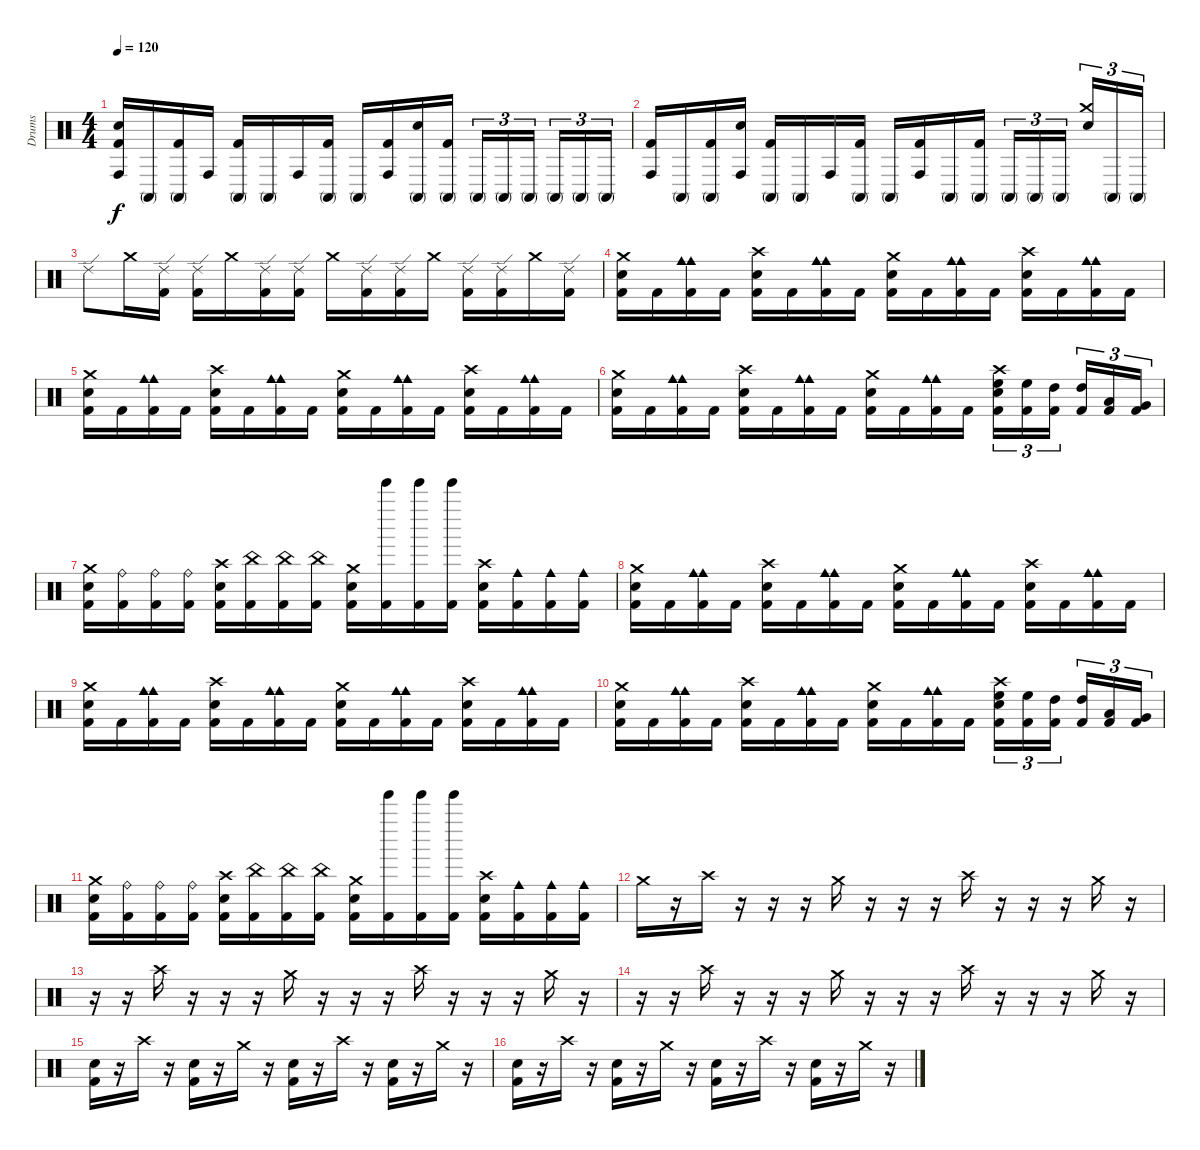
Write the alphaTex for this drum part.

\track ("Drums" "Drums") {instrument percussion}
\staff {score}
\articulation defaults
\ts (4 4)
\tempo 120
\clef neutral
\ks c
("Conga high (hit)" "Snare (hit) 2" "Kick (hit) 2").16{dy f} "Conga high (mute)".16 ("Conga high (mute)" "Kick (hit) 2").16 "Conga high (hit)".16 ("Conga high (mute)" "Kick (hit) 2").16 "Conga high (mute)".16 "Conga high (hit)".16 ("Conga high (mute)" "Kick (hit) 2").16 "Conga high (mute)".16 ("Conga high (hit)" "Kick (hit) 2").16 ("Conga high (mute)" "Snare (hit) 2").16 ("Conga high (mute)" "Kick (hit) 2").16 "Conga high (mute)".16{tu (3 2)} "Conga high (mute)".16{tu (3 2)} "Conga high (mute)".16{tu (3 2)} "Conga high (mute)".16{tu (3 2)} "Conga high (mute)".16{tu (3 2)} "Conga high (mute)".16{tu (3 2)} |
("Conga high (hit)" "Kick (hit) 2").16 "Conga high (mute)".16 ("Conga high (mute)" "Kick (hit) 2").16 ("Conga high (hit)" "Snare (hit) 2").16 ("Conga high (mute)" "Kick (hit) 2").16 "Conga high (mute)".16 "Conga high (hit)".16 ("Conga high (mute)" "Kick (hit) 2").16 "Conga high (mute)".16 ("Conga high (hit)" "Kick (hit) 2").16 "Conga high (mute)".16 ("Conga high (mute)" "Kick (hit) 2").16 "Conga high (mute)".16{tu (3 2)} "Conga high (mute)".16{tu (3 2)} "Conga high (mute)".16{tu (3 2)} ("Crash medium (hit)" "Snare (hit) 2").16{tu (3 2)} "Conga high (mute)".16{tu (3 2)} "Conga high (mute)".16{tu (3 2)} |
"Ride (edge) 2".8 "Crash medium (hit)".16 ("Ride (edge) 2" "Kick (hit) 2").16 ("Ride (edge) 2" "Kick (hit) 2").16 "Crash medium (hit)".16 ("Ride (edge) 2" "Kick (hit) 2").16 ("Ride (edge) 2" "Kick (hit) 2").16 "Crash medium (hit)".16 ("Ride (edge) 2" "Kick (hit) 2").16 ("Ride (edge) 2" "Kick (hit) 2").16 "Crash medium (hit)".16 ("Ride (edge) 2" "Kick (hit) 2").16 ("Ride (edge) 2" "Kick (hit) 2").16 "Crash medium (hit)".16 ("Ride (edge) 2" "Kick (hit) 2").16 |
("Crash medium (hit)" "Snare (hit) 2" "Kick (hit) 2").16 "Kick (hit) 2".16 ("Cowbell medium (hit)" "Cowbell medium (hit)" "Kick (hit) 2").16 "Kick (hit) 2".16 ("Crash high (hit)" "Snare (hit) 2" "Kick (hit) 2").16 "Kick (hit) 2".16 ("Cowbell medium (hit)" "Cowbell medium (hit)" "Kick (hit) 2").16 "Kick (hit) 2".16 ("Crash medium (hit)" "Snare (hit) 2" "Kick (hit) 2").16 "Kick (hit) 2".16 ("Cowbell medium (hit)" "Cowbell medium (hit)" "Kick (hit) 2").16 "Kick (hit) 2".16 ("Crash high (hit)" "Snare (hit) 2" "Kick (hit) 2").16 "Kick (hit) 2".16 ("Cowbell medium (hit)" "Cowbell medium (hit)" "Kick (hit) 2").16 "Kick (hit) 2".16 |
("Crash medium (hit)" "Snare (hit) 2" "Kick (hit) 2").16 "Kick (hit) 2".16 ("Cowbell medium (hit)" "Cowbell medium (hit)" "Kick (hit) 2").16 "Kick (hit) 2".16 ("Crash high (hit)" "Snare (hit) 2" "Kick (hit) 2").16 "Kick (hit) 2".16 ("Cowbell medium (hit)" "Cowbell medium (hit)" "Kick (hit) 2").16 "Kick (hit) 2".16 ("Crash medium (hit)" "Snare (hit) 2" "Kick (hit) 2").16 "Kick (hit) 2".16 ("Cowbell medium (hit)" "Cowbell medium (hit)" "Kick (hit) 2").16 "Kick (hit) 2".16 ("Crash high (hit)" "Snare (hit) 2" "Kick (hit) 2").16 "Kick (hit) 2".16 ("Cowbell medium (hit)" "Cowbell medium (hit)" "Kick (hit) 2").16 "Kick (hit) 2".16 |
("Crash medium (hit)" "Snare (hit) 2" "Kick (hit) 2").16 "Kick (hit) 2".16 ("Cowbell medium (hit)" "Cowbell medium (hit)" "Kick (hit) 2").16 "Kick (hit) 2".16 ("Crash high (hit)" "Snare (hit) 2" "Kick (hit) 2").16 "Kick (hit) 2".16 ("Cowbell medium (hit)" "Cowbell medium (hit)" "Kick (hit) 2").16 "Kick (hit) 2".16 ("Crash medium (hit)" "Snare (hit) 2" "Kick (hit) 2").16 "Kick (hit) 2".16 ("Cowbell medium (hit)" "Cowbell medium (hit)" "Kick (hit) 2").16 "Kick (hit) 2".16 ("Crash high (hit)" "High Floor Tom (hit)" "Snare (hit) 2" "Kick (hit) 2").16{tu (3 2)} ("High Floor Tom (hit)" "Kick (hit) 2").16{tu (3 2)} ("High Tom (hit)" "Kick (hit) 2").16{tu (3 2)} ("High Tom (hit)" "Kick (hit) 2").16{tu (3 2)} ("Low Tom (hit)" "Kick (hit) 2").16{tu (3 2)} ("Very Low Tom (hit)" "Kick (hit) 2").16{tu (3 2)} |
("Crash medium (hit)" "Snare (hit) 2" "Kick (hit) 2").16 ("Ride (bell)" "Kick (hit) 2").16 ("Ride (bell)" "Kick (hit) 2").16 ("Ride (bell)" "Kick (hit) 2").16 ("Crash high (hit)" "Snare (hit) 2" "Kick (hit) 2").16 ("China (hit)" "Kick (hit) 2").16 ("China (hit)" "Kick (hit) 2").16 ("China (hit)" "Kick (hit) 2").16 ("Crash medium (hit)" "Snare (hit) 2" "Kick (hit) 2").16 ("Tinkle Bell (hit)" "Kick (hit) 2").16 ("Tinkle Bell (hit)" "Kick (hit) 2").16 ("Tinkle Bell (hit)" "Kick (hit) 2").16 ("Crash high (hit)" "Snare (hit) 2" "Kick (hit) 2").16 ("Cowbell medium (hit)" "Kick (hit) 2").16 ("Cowbell medium (hit)" "Kick (hit) 2").16 ("Cowbell medium (hit)" "Kick (hit) 2").16 |
("Crash medium (hit)" "Snare (hit) 2" "Kick (hit) 2").16 "Kick (hit) 2".16 ("Cowbell medium (hit)" "Cowbell medium (hit)" "Kick (hit) 2").16 "Kick (hit) 2".16 ("Crash high (hit)" "Snare (hit) 2" "Kick (hit) 2").16 "Kick (hit) 2".16 ("Cowbell medium (hit)" "Cowbell medium (hit)" "Kick (hit) 2").16 "Kick (hit) 2".16 ("Crash medium (hit)" "Snare (hit) 2" "Kick (hit) 2").16 "Kick (hit) 2".16 ("Cowbell medium (hit)" "Cowbell medium (hit)" "Kick (hit) 2").16 "Kick (hit) 2".16 ("Crash high (hit)" "Snare (hit) 2" "Kick (hit) 2").16 "Kick (hit) 2".16 ("Cowbell medium (hit)" "Cowbell medium (hit)" "Kick (hit) 2").16 "Kick (hit) 2".16 |
("Crash medium (hit)" "Snare (hit) 2" "Kick (hit) 2").16 "Kick (hit) 2".16 ("Cowbell medium (hit)" "Cowbell medium (hit)" "Kick (hit) 2").16 "Kick (hit) 2".16 ("Crash high (hit)" "Snare (hit) 2" "Kick (hit) 2").16 "Kick (hit) 2".16 ("Cowbell medium (hit)" "Cowbell medium (hit)" "Kick (hit) 2").16 "Kick (hit) 2".16 ("Crash medium (hit)" "Snare (hit) 2" "Kick (hit) 2").16 "Kick (hit) 2".16 ("Cowbell medium (hit)" "Cowbell medium (hit)" "Kick (hit) 2").16 "Kick (hit) 2".16 ("Crash high (hit)" "Snare (hit) 2" "Kick (hit) 2").16 "Kick (hit) 2".16 ("Cowbell medium (hit)" "Cowbell medium (hit)" "Kick (hit) 2").16 "Kick (hit) 2".16 |
("Crash medium (hit)" "Snare (hit) 2" "Kick (hit) 2").16 "Kick (hit) 2".16 ("Cowbell medium (hit)" "Cowbell medium (hit)" "Kick (hit) 2").16 "Kick (hit) 2".16 ("Crash high (hit)" "Snare (hit) 2" "Kick (hit) 2").16 "Kick (hit) 2".16 ("Cowbell medium (hit)" "Cowbell medium (hit)" "Kick (hit) 2").16 "Kick (hit) 2".16 ("Crash medium (hit)" "Snare (hit) 2" "Kick (hit) 2").16 "Kick (hit) 2".16 ("Cowbell medium (hit)" "Cowbell medium (hit)" "Kick (hit) 2").16 "Kick (hit) 2".16 ("Crash high (hit)" "High Floor Tom (hit)" "Snare (hit) 2" "Kick (hit) 2").16{tu (3 2)} ("High Floor Tom (hit)" "Kick (hit) 2").16{tu (3 2)} ("High Tom (hit)" "Kick (hit) 2").16{tu (3 2)} ("High Tom (hit)" "Kick (hit) 2").16{tu (3 2)} ("Low Tom (hit)" "Kick (hit) 2").16{tu (3 2)} ("Very Low Tom (hit)" "Kick (hit) 2").16{tu (3 2)} |
("Crash medium (hit)" "Snare (hit) 2" "Kick (hit) 2").16 ("Ride (bell)" "Kick (hit) 2").16 ("Ride (bell)" "Kick (hit) 2").16 ("Ride (bell)" "Kick (hit) 2").16 ("Crash high (hit)" "Snare (hit) 2" "Kick (hit) 2").16 ("China (hit)" "Kick (hit) 2").16 ("China (hit)" "Kick (hit) 2").16 ("China (hit)" "Kick (hit) 2").16 ("Crash medium (hit)" "Snare (hit) 2" "Kick (hit) 2").16 ("Tinkle Bell (hit)" "Kick (hit) 2").16 ("Tinkle Bell (hit)" "Kick (hit) 2").16 ("Tinkle Bell (hit)" "Kick (hit) 2").16 ("Crash high (hit)" "Snare (hit) 2" "Kick (hit) 2").16 ("Cowbell medium (hit)" "Kick (hit) 2").16 ("Cowbell medium (hit)" "Kick (hit) 2").16 ("Cowbell medium (hit)" "Kick (hit) 2").16 |
"Crash medium (hit)".16 r.16 "Crash high (hit)".16 r.16 r.16 r.16 "Crash medium (hit)".16 r.16 r.16 r.16 "Crash high (hit)".16 r.16 r.16 r.16 "Crash medium (hit)".16 r.16 |
r.16 r.16 "Crash high (hit)".16 r.16 r.16 r.16 "Crash medium (hit)".16 r.16 r.16 r.16 "Crash high (hit)".16 r.16 r.16 r.16 "Crash medium (hit)".16 r.16 |
r.16 r.16 "Crash high (hit)".16 r.16 r.16 r.16 "Crash medium (hit)".16 r.16 r.16 r.16 "Crash high (hit)".16 r.16 r.16 r.16 "Crash medium (hit)".16 r.16 |
("Snare (hit) 2" "Kick (hit) 2").16 r.16 "Crash high (hit)".16 r.16 ("Snare (hit) 2" "Kick (hit) 2").16 r.16 "Crash medium (hit)".16 r.16 ("Snare (hit) 2" "Kick (hit) 2").16 r.16 "Crash high (hit)".16 r.16 ("Snare (hit) 2" "Kick (hit) 2").16 r.16 "Crash medium (hit)".16 r.16 |
("Snare (hit) 2" "Kick (hit) 2").16 r.16 "Crash high (hit)".16 r.16 ("Snare (hit) 2" "Kick (hit) 2").16 r.16 "Crash medium (hit)".16 r.16 ("Snare (hit) 2" "Kick (hit) 2").16 r.16 "Crash high (hit)".16 r.16 ("Snare (hit) 2" "Kick (hit) 2").16 r.16 "Crash medium (hit)".16 r.16
